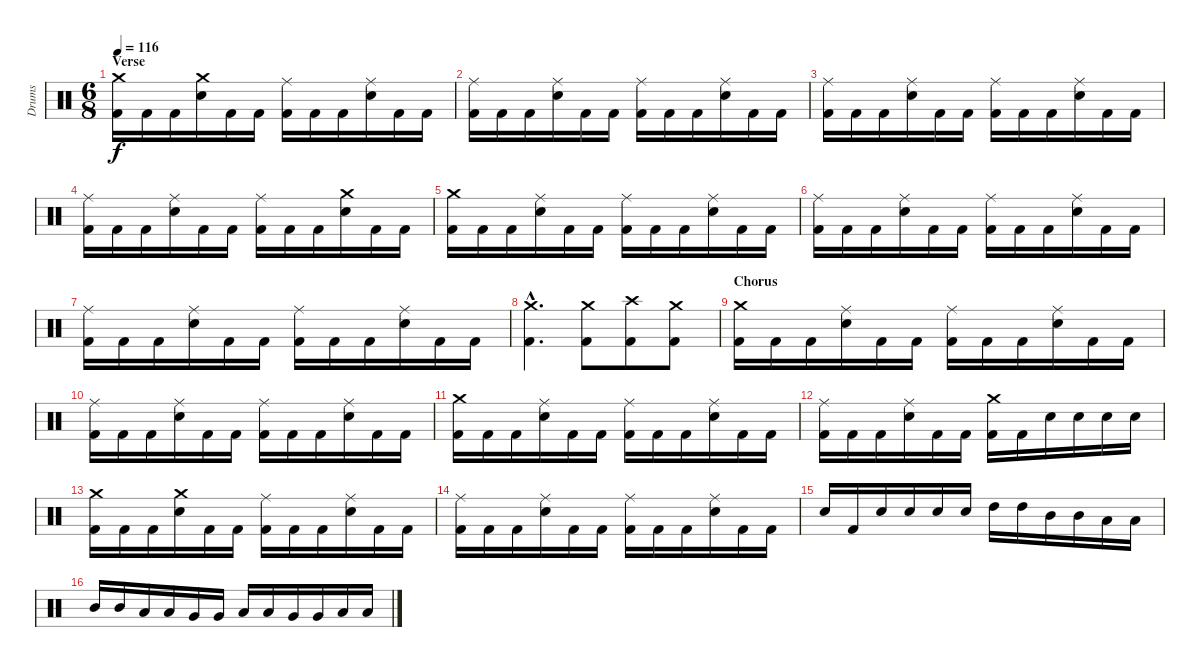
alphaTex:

\track ("Drums" "Drums") {instrument percussion}
\staff {score}
\articulation defaults
\ts (6 8)
\section ("" "Verse")
\tempo 116
\clef neutral
\ks c
("Crash medium (hit)" "Kick (hit) 2").16{dy f} "Kick (hit) 2".16 "Kick (hit) 2".16 ("Crash medium (hit)" "Electric Snare (hit)").16 "Kick (hit) 2".16 "Kick (hit) 2".16 ("Ride (middle)" "Kick (hit) 2").16 "Kick (hit) 2".16 "Kick (hit) 2".16 ("Ride (middle)" "Electric Snare (hit)").16 "Kick (hit) 2".16 "Kick (hit) 2".16 |
("Ride (middle)" "Kick (hit) 2").16 "Kick (hit) 2".16 "Kick (hit) 2".16 ("Ride (middle)" "Electric Snare (hit)").16 "Kick (hit) 2".16 "Kick (hit) 2".16 ("Ride (middle)" "Kick (hit) 2").16 "Kick (hit) 2".16 "Kick (hit) 2".16 ("Ride (middle)" "Electric Snare (hit)").16 "Kick (hit) 2".16 "Kick (hit) 2".16 |
("Ride (middle)" "Kick (hit) 2").16 "Kick (hit) 2".16 "Kick (hit) 2".16 ("Ride (middle)" "Electric Snare (hit)").16 "Kick (hit) 2".16 "Kick (hit) 2".16 ("Ride (middle)" "Kick (hit) 2").16 "Kick (hit) 2".16 "Kick (hit) 2".16 ("Ride (middle)" "Electric Snare (hit)").16 "Kick (hit) 2".16 "Kick (hit) 2".16 |
("Ride (middle)" "Kick (hit) 2").16 "Kick (hit) 2".16 "Kick (hit) 2".16 ("Ride (middle)" "Electric Snare (hit)").16 "Kick (hit) 2".16 "Kick (hit) 2".16 ("Ride (middle)" "Kick (hit) 2").16 "Kick (hit) 2".16 "Kick (hit) 2".16 ("Crash medium (hit)" "Electric Snare (hit)").16 "Kick (hit) 2".16 "Kick (hit) 2".16 |
("Crash medium (hit)" "Kick (hit) 2").16 "Kick (hit) 2".16 "Kick (hit) 2".16 ("Ride (middle)" "Electric Snare (hit)").16 "Kick (hit) 2".16 "Kick (hit) 2".16 ("Ride (middle)" "Kick (hit) 2").16 "Kick (hit) 2".16 "Kick (hit) 2".16 ("Ride (middle)" "Electric Snare (hit)").16 "Kick (hit) 2".16 "Kick (hit) 2".16 |
("Ride (middle)" "Kick (hit) 2").16 "Kick (hit) 2".16 "Kick (hit) 2".16 ("Ride (middle)" "Electric Snare (hit)").16 "Kick (hit) 2".16 "Kick (hit) 2".16 ("Ride (middle)" "Kick (hit) 2").16 "Kick (hit) 2".16 "Kick (hit) 2".16 ("Ride (middle)" "Electric Snare (hit)").16 "Kick (hit) 2".16 "Kick (hit) 2".16 |
("Ride (middle)" "Kick (hit) 2").16 "Kick (hit) 2".16 "Kick (hit) 2".16 ("Ride (middle)" "Electric Snare (hit)").16 "Kick (hit) 2".16 "Kick (hit) 2".16 ("Ride (middle)" "Kick (hit) 2").16 "Kick (hit) 2".16 "Kick (hit) 2".16 ("Ride (middle)" "Electric Snare (hit)").16 "Kick (hit) 2".16 "Kick (hit) 2".16 |
("Crash medium (hit)"{hac} "Kick (hit) 2"{hac}).4{d} ("Crash medium (hit)" "Kick (hit) 2").8 ("Crash high (hit)" "Kick (hit) 2").8 ("Crash medium (hit)" "Kick (hit) 2").8 |
\section ("" "Chorus")
("Crash medium (hit)" "Kick (hit) 2").16 "Kick (hit) 2".16 "Kick (hit) 2".16 ("Ride (middle)" "Electric Snare (hit)").16 "Kick (hit) 2".16 "Kick (hit) 2".16 ("Ride (middle)" "Kick (hit) 2").16 "Kick (hit) 2".16 "Kick (hit) 2".16 ("Ride (middle)" "Electric Snare (hit)").16 "Kick (hit) 2".16 "Kick (hit) 2".16 |
("Ride (middle)" "Kick (hit) 2").16 "Kick (hit) 2".16 "Kick (hit) 2".16 ("Ride (middle)" "Electric Snare (hit)").16 "Kick (hit) 2".16 "Kick (hit) 2".16 ("Ride (middle)" "Kick (hit) 2").16 "Kick (hit) 2".16 "Kick (hit) 2".16 ("Ride (middle)" "Electric Snare (hit)").16 "Kick (hit) 2".16 "Kick (hit) 2".16 |
("Crash medium (hit)" "Kick (hit) 2").16 "Kick (hit) 2".16 "Kick (hit) 2".16 ("Ride (middle)" "Electric Snare (hit)").16 "Kick (hit) 2".16 "Kick (hit) 2".16 ("Ride (middle)" "Kick (hit) 2").16 "Kick (hit) 2".16 "Kick (hit) 2".16 ("Ride (middle)" "Electric Snare (hit)").16 "Kick (hit) 2".16 "Kick (hit) 2".16 |
("Ride (middle)" "Kick (hit) 2").16 "Kick (hit) 2".16 "Kick (hit) 2".16 ("Ride (middle)" "Electric Snare (hit)").16 "Kick (hit) 2".16 "Kick (hit) 2".16 ("Crash medium (hit)" "Kick (hit) 2").16 "Kick (hit) 2".16 "Electric Snare (hit)".16 "Electric Snare (hit)".16 "Electric Snare (hit)".16 "Electric Snare (hit)".16 |
("Crash medium (hit)" "Kick (hit) 2").16 "Kick (hit) 2".16 "Kick (hit) 2".16 ("Crash medium (hit)" "Electric Snare (hit)").16 "Kick (hit) 2".16 "Kick (hit) 2".16 ("Ride (middle)" "Kick (hit) 2").16 "Kick (hit) 2".16 "Kick (hit) 2".16 ("Ride (middle)" "Electric Snare (hit)").16 "Kick (hit) 2".16 "Kick (hit) 2".16 |
("Ride (middle)" "Kick (hit) 2").16 "Kick (hit) 2".16 "Kick (hit) 2".16 ("Ride (middle)" "Electric Snare (hit)").16 "Kick (hit) 2".16 "Kick (hit) 2".16 ("Ride (middle)" "Kick (hit) 2").16 "Kick (hit) 2".16 "Kick (hit) 2".16 ("Ride (middle)" "Electric Snare (hit)").16 "Kick (hit) 2".16 "Kick (hit) 2".16 |
"Electric Snare (hit)".16 "Kick (hit) 2".16 "Electric Snare (hit)".16 "Electric Snare (hit)".16 "Electric Snare (hit)".16 "Electric Snare (hit)".16 "High Tom (hit)".16 "High Tom (hit)".16 "Mid Tom (hit)".16 "Mid Tom (hit)".16 "Low Tom (hit)".16 "Low Tom (hit)".16 |
"Mid Tom (hit)".16 "Mid Tom (hit)".16 "Low Tom (hit)".16 "Low Tom (hit)".16 "Very Low Tom (hit)".16 "Very Low Tom (hit)".16 "Low Tom (hit)".16 "Low Tom (hit)".16 "Very Low Tom (hit)".16 "Very Low Tom (hit)".16 "Low Floor Tom (hit)".16 "Low Floor Tom (hit)".16
